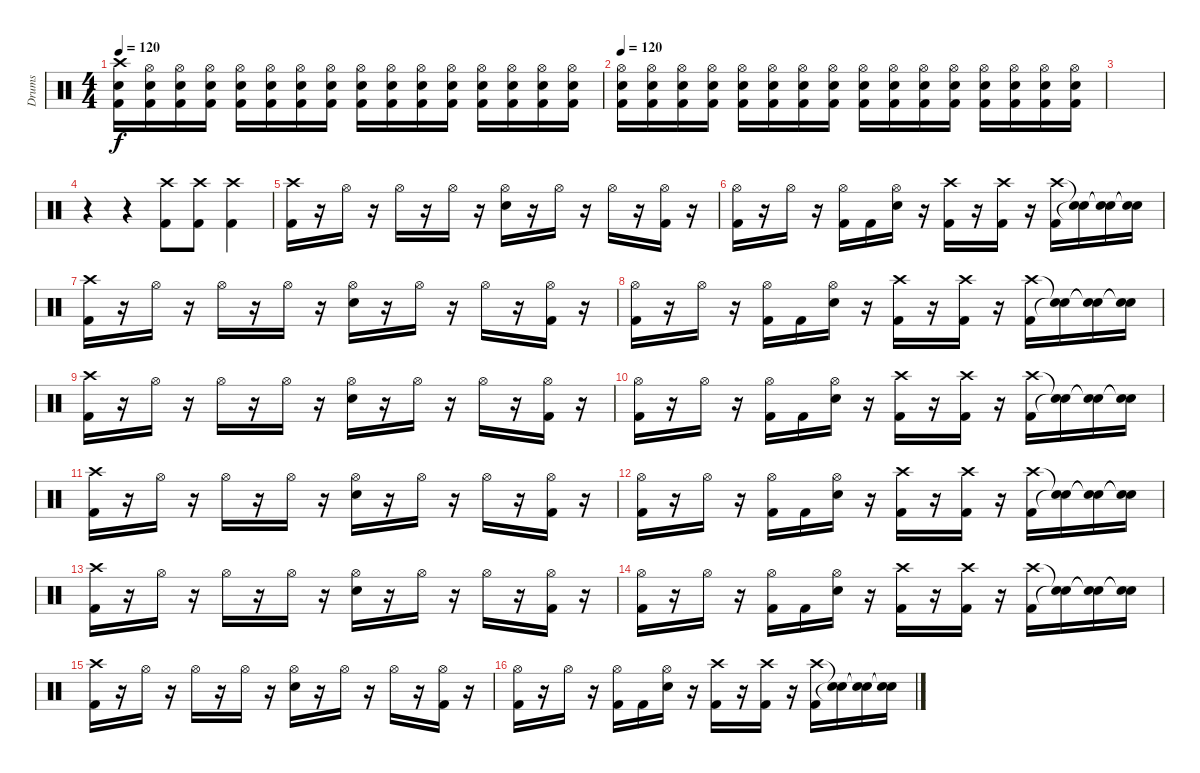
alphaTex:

\track ("Drums" "Drums") {instrument percussion}
\staff {score}
\articulation defaults
\ts (4 4)
\tempo 120
\clef neutral
\ks c
("Crash high (hit)" "Electric Snare (hit)" "Kick (hit) 2").16{dy f} ("Hi-Hat (open)" "Electric Snare (hit)" "Kick (hit) 2").16 ("Hi-Hat (open)" "Electric Snare (hit)" "Kick (hit) 2").16 ("Hi-Hat (open)" "Electric Snare (hit)" "Kick (hit) 2").16 ("Hi-Hat (open)" "Electric Snare (hit)" "Kick (hit) 2").16 ("Hi-Hat (open)" "Electric Snare (hit)" "Kick (hit) 2").16 ("Hi-Hat (open)" "Electric Snare (hit)" "Kick (hit) 2").16 ("Hi-Hat (open)" "Electric Snare (hit)" "Kick (hit) 2").16 ("Hi-Hat (open)" "Electric Snare (hit)" "Kick (hit) 2").16 ("Hi-Hat (open)" "Electric Snare (hit)" "Kick (hit) 2").16 ("Hi-Hat (open)" "Electric Snare (hit)" "Kick (hit) 2").16 ("Hi-Hat (open)" "Electric Snare (hit)" "Kick (hit) 2").16 ("Hi-Hat (open)" "Electric Snare (hit)" "Kick (hit) 2").16 ("Hi-Hat (open)" "Electric Snare (hit)" "Kick (hit) 2").16 ("Hi-Hat (open)" "Electric Snare (hit)" "Kick (hit) 2").16 ("Hi-Hat (open)" "Electric Snare (hit)" "Kick (hit) 2").16 |
\tempo 120
("Hi-Hat (open)" "Electric Snare (hit)" "Kick (hit) 2").16 ("Hi-Hat (open)" "Electric Snare (hit)" "Kick (hit) 2").16 ("Hi-Hat (open)" "Electric Snare (hit)" "Kick (hit) 2").16 ("Hi-Hat (open)" "Electric Snare (hit)" "Kick (hit) 2").16 ("Hi-Hat (open)" "Electric Snare (hit)" "Kick (hit) 2").16 ("Hi-Hat (open)" "Electric Snare (hit)" "Kick (hit) 2").16 ("Hi-Hat (open)" "Electric Snare (hit)" "Kick (hit) 2").16 ("Hi-Hat (open)" "Electric Snare (hit)" "Kick (hit) 2").16 ("Hi-Hat (open)" "Electric Snare (hit)" "Kick (hit) 2").16 ("Hi-Hat (open)" "Electric Snare (hit)" "Kick (hit) 2").16 ("Hi-Hat (open)" "Electric Snare (hit)" "Kick (hit) 2").16 ("Hi-Hat (open)" "Electric Snare (hit)" "Kick (hit) 2").16 ("Hi-Hat (open)" "Electric Snare (hit)" "Kick (hit) 2").16 ("Hi-Hat (open)" "Electric Snare (hit)" "Kick (hit) 2").16 ("Hi-Hat (open)" "Electric Snare (hit)" "Kick (hit) 2").16 ("Hi-Hat (open)" "Electric Snare (hit)" "Kick (hit) 2").16 |
|
r.4 r.4 ("Crash high (hit)" "Kick (hit) 2").8 ("Crash high (hit)" "Kick (hit) 2").8 ("Crash high (hit)" "Kick (hit) 2").4 |
("Crash high (hit)" "Kick (hit) 2").16 r.16 "Hi-Hat (open)".16 r.16 "Hi-Hat (open)".16 r.16 "Hi-Hat (open)".16 r.16 ("Hi-Hat (open)" "Electric Snare (hit)").16 r.16 "Hi-Hat (open)".16 r.16 "Hi-Hat (open)".16 r.16 ("Hi-Hat (open)" "Kick (hit) 2").16 r.16 |
("Hi-Hat (open)" "Kick (hit) 2").16 r.16 "Hi-Hat (open)".16 r.16 ("Hi-Hat (open)" "Kick (hit) 2").16 "Kick (hit) 2".16 ("Hi-Hat (open)" "Electric Snare (hit)").16 r.16 ("Crash high (hit)" "Kick (hit) 2").16 r.16 ("Crash high (hit)" "Kick (hit) 2").16 r.16 ("Crash high (hit)" "Kick (hit) 2").16 ("Snare (hit)"{t} "Snare (hit)"{t}).16 ("Snare (hit)"{t} "Snare (hit)"{t}).16 ("Snare (hit)"{t} "Snare (hit)"{t}).16 |
("Crash high (hit)" "Kick (hit) 2").16 r.16 "Hi-Hat (open)".16 r.16 "Hi-Hat (open)".16 r.16 "Hi-Hat (open)".16 r.16 ("Hi-Hat (open)" "Electric Snare (hit)").16 r.16 "Hi-Hat (open)".16 r.16 "Hi-Hat (open)".16 r.16 ("Hi-Hat (open)" "Kick (hit) 2").16 r.16 |
("Hi-Hat (open)" "Kick (hit) 2").16 r.16 "Hi-Hat (open)".16 r.16 ("Hi-Hat (open)" "Kick (hit) 2").16 "Kick (hit) 2".16 ("Hi-Hat (open)" "Electric Snare (hit)").16 r.16 ("Crash high (hit)" "Kick (hit) 2").16 r.16 ("Crash high (hit)" "Kick (hit) 2").16 r.16 ("Crash high (hit)" "Kick (hit) 2").16 ("Snare (hit)"{t} "Snare (hit)"{t}).16 ("Snare (hit)"{t} "Snare (hit)"{t}).16 ("Snare (hit)"{t} "Snare (hit)"{t}).16 |
("Crash high (hit)" "Kick (hit) 2").16 r.16 "Hi-Hat (open)".16 r.16 "Hi-Hat (open)".16 r.16 "Hi-Hat (open)".16 r.16 ("Hi-Hat (open)" "Electric Snare (hit)").16 r.16 "Hi-Hat (open)".16 r.16 "Hi-Hat (open)".16 r.16 ("Hi-Hat (open)" "Kick (hit) 2").16 r.16 |
("Hi-Hat (open)" "Kick (hit) 2").16 r.16 "Hi-Hat (open)".16 r.16 ("Hi-Hat (open)" "Kick (hit) 2").16 "Kick (hit) 2".16 ("Hi-Hat (open)" "Electric Snare (hit)").16 r.16 ("Crash high (hit)" "Kick (hit) 2").16 r.16 ("Crash high (hit)" "Kick (hit) 2").16 r.16 ("Crash high (hit)" "Kick (hit) 2").16 ("Snare (hit)"{t} "Snare (hit)"{t}).16 ("Snare (hit)"{t} "Snare (hit)"{t}).16 ("Snare (hit)"{t} "Snare (hit)"{t}).16 |
("Crash high (hit)" "Kick (hit) 2").16 r.16 "Hi-Hat (open)".16 r.16 "Hi-Hat (open)".16 r.16 "Hi-Hat (open)".16 r.16 ("Hi-Hat (open)" "Electric Snare (hit)").16 r.16 "Hi-Hat (open)".16 r.16 "Hi-Hat (open)".16 r.16 ("Hi-Hat (open)" "Kick (hit) 2").16 r.16 |
("Hi-Hat (open)" "Kick (hit) 2").16 r.16 "Hi-Hat (open)".16 r.16 ("Hi-Hat (open)" "Kick (hit) 2").16 "Kick (hit) 2".16 ("Hi-Hat (open)" "Electric Snare (hit)").16 r.16 ("Crash high (hit)" "Kick (hit) 2").16 r.16 ("Crash high (hit)" "Kick (hit) 2").16 r.16 ("Crash high (hit)" "Kick (hit) 2").16 ("Snare (hit)"{t} "Snare (hit)"{t}).16 ("Snare (hit)"{t} "Snare (hit)"{t}).16 ("Snare (hit)"{t} "Snare (hit)"{t}).16 |
("Crash high (hit)" "Kick (hit) 2").16 r.16 "Hi-Hat (open)".16 r.16 "Hi-Hat (open)".16 r.16 "Hi-Hat (open)".16 r.16 ("Hi-Hat (open)" "Electric Snare (hit)").16 r.16 "Hi-Hat (open)".16 r.16 "Hi-Hat (open)".16 r.16 ("Hi-Hat (open)" "Kick (hit) 2").16 r.16 |
("Hi-Hat (open)" "Kick (hit) 2").16 r.16 "Hi-Hat (open)".16 r.16 ("Hi-Hat (open)" "Kick (hit) 2").16 "Kick (hit) 2".16 ("Hi-Hat (open)" "Electric Snare (hit)").16 r.16 ("Crash high (hit)" "Kick (hit) 2").16 r.16 ("Crash high (hit)" "Kick (hit) 2").16 r.16 ("Crash high (hit)" "Kick (hit) 2").16 ("Snare (hit)"{t} "Snare (hit)"{t}).16 ("Snare (hit)"{t} "Snare (hit)"{t}).16 ("Snare (hit)"{t} "Snare (hit)"{t}).16 |
("Crash high (hit)" "Kick (hit) 2").16 r.16 "Hi-Hat (open)".16 r.16 "Hi-Hat (open)".16 r.16 "Hi-Hat (open)".16 r.16 ("Hi-Hat (open)" "Electric Snare (hit)").16 r.16 "Hi-Hat (open)".16 r.16 "Hi-Hat (open)".16 r.16 ("Hi-Hat (open)" "Kick (hit) 2").16 r.16 |
("Hi-Hat (open)" "Kick (hit) 2").16 r.16 "Hi-Hat (open)".16 r.16 ("Hi-Hat (open)" "Kick (hit) 2").16 "Kick (hit) 2".16 ("Hi-Hat (open)" "Electric Snare (hit)").16 r.16 ("Crash high (hit)" "Kick (hit) 2").16 r.16 ("Crash high (hit)" "Kick (hit) 2").16 r.16 ("Crash high (hit)" "Kick (hit) 2").16 ("Snare (hit)"{t} "Snare (hit)"{t}).16 ("Snare (hit)"{t} "Snare (hit)"{t}).16 ("Snare (hit)"{t} "Snare (hit)"{t}).16
